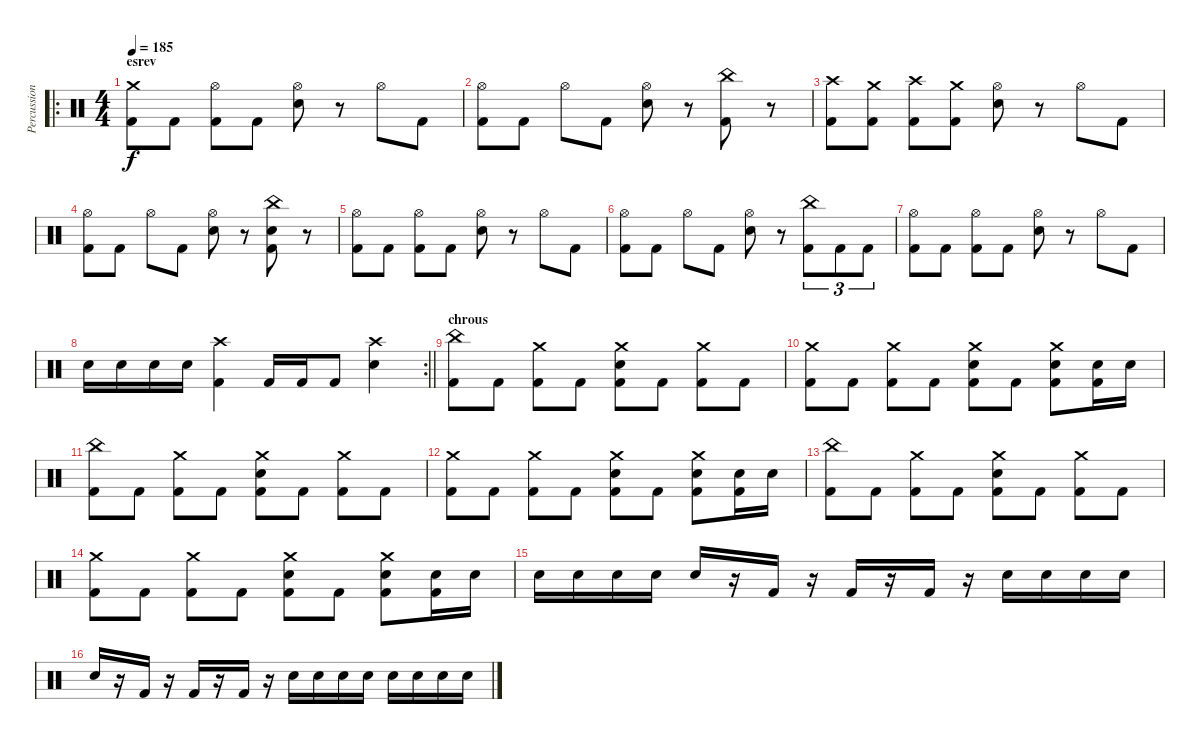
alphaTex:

\track ("Percussion" "Percussion") {instrument percussion}
\staff {score}
\articulation defaults
\ro
\ts (4 4)
\section ("" "esrev")
\tempo 185
\clef neutral
\ks c
("Crash medium (hit)" "Kick (hit) 2").8{dy f} "Kick (hit) 2".8 ("Hi-Hat (open)" "Kick (hit) 2").8 "Kick (hit) 2".8 ("Hi-Hat (open)" "Electric Snare (hit)").8 r.8 "Hi-Hat (open)".8 "Kick (hit) 2".8 |
("Hi-Hat (open)" "Kick (hit) 2").8 "Kick (hit) 2".8 "Hi-Hat (open)".8 "Kick (hit) 2".8 ("Hi-Hat (open)" "Electric Snare (hit)").8 r.8 ("China (hit)" "Kick (hit) 2").8 r.8 |
("Crash high (hit)" "Kick (hit) 2").8 ("Crash medium (hit)" "Kick (hit) 2").8 ("Crash high (hit)" "Kick (hit) 2").8 ("Crash medium (hit)" "Kick (hit) 2").8 ("Hi-Hat (open)" "Electric Snare (hit)").8 r.8 "Hi-Hat (open)".8 "Kick (hit) 2".8 |
("Hi-Hat (open)" "Kick (hit) 2").8 "Kick (hit) 2".8 "Hi-Hat (open)".8 "Kick (hit) 2".8 ("Hi-Hat (open)" "Electric Snare (hit)").8 r.8 ("China (hit)" "Electric Snare (hit)" "Kick (hit) 2").8 r.8 |
("Hi-Hat (open)" "Kick (hit) 2").8 "Kick (hit) 2".8 ("Hi-Hat (open)" "Kick (hit) 2").8 "Kick (hit) 2".8 ("Hi-Hat (open)" "Electric Snare (hit)").8 r.8 "Hi-Hat (open)".8 "Kick (hit) 2".8 |
("Hi-Hat (open)" "Kick (hit) 2").8 "Kick (hit) 2".8 "Hi-Hat (open)".8 "Kick (hit) 2".8 ("Hi-Hat (open)" "Electric Snare (hit)").8 r.8 ("China (hit)" "Kick (hit) 2").8{tu (3 2)} "Kick (hit) 2".8{tu (3 2)} "Kick (hit) 2".8{tu (3 2)} |
("Hi-Hat (open)" "Kick (hit) 2").8 "Kick (hit) 2".8 ("Hi-Hat (open)" "Kick (hit) 2").8 "Kick (hit) 2".8 ("Hi-Hat (open)" "Electric Snare (hit)").8 r.8 "Hi-Hat (open)".8 "Kick (hit) 2".8 |
\rc 2
\barLineRight lightlight "Electric Snare (hit)".16 "Electric Snare (hit)".16 "Electric Snare (hit)".16 "Electric Snare (hit)".16
("Crash high (hit)" "Kick (hit) 2").4 "Kick (hit) 2".16 "Kick (hit) 2".16 "Kick (hit) 2".8 ("Crash high (hit)" "Electric Snare (hit)").4 |
\section ("" "chrous")
("China (hit)" "Kick (hit) 2").8 "Kick (hit) 2".8 ("Crash medium (hit)" "Kick (hit) 2").8 "Kick (hit) 2".8 ("Crash medium (hit)" "Electric Snare (hit)" "Kick (hit) 2").8 "Kick (hit) 2".8 ("Crash medium (hit)" "Kick (hit) 2").8 "Kick (hit) 2".8 |
("Crash medium (hit)" "Kick (hit) 2").8 "Kick (hit) 2".8 ("Crash medium (hit)" "Kick (hit) 2").8 "Kick (hit) 2".8 ("Crash medium (hit)" "Electric Snare (hit)" "Kick (hit) 2").8 "Kick (hit) 2".8 ("Crash medium (hit)" "Electric Snare (hit)" "Kick (hit) 2").8 ("Electric Snare (hit)" "Kick (hit) 2").16 "Electric Snare (hit)".16 |
("China (hit)" "Kick (hit) 2").8 "Kick (hit) 2".8 ("Crash medium (hit)" "Kick (hit) 2").8 "Kick (hit) 2".8 ("Crash medium (hit)" "Electric Snare (hit)" "Kick (hit) 2").8 "Kick (hit) 2".8 ("Crash medium (hit)" "Kick (hit) 2").8 "Kick (hit) 2".8 |
("Crash medium (hit)" "Kick (hit) 2").8 "Kick (hit) 2".8 ("Crash medium (hit)" "Kick (hit) 2").8 "Kick (hit) 2".8 ("Crash medium (hit)" "Electric Snare (hit)" "Kick (hit) 2").8 "Kick (hit) 2".8 ("Crash medium (hit)" "Electric Snare (hit)" "Kick (hit) 2").8 ("Electric Snare (hit)" "Kick (hit) 2").16 "Electric Snare (hit)".16 |
("China (hit)" "Kick (hit) 2").8 "Kick (hit) 2".8 ("Crash medium (hit)" "Kick (hit) 2").8 "Kick (hit) 2".8 ("Crash medium (hit)" "Electric Snare (hit)" "Kick (hit) 2").8 "Kick (hit) 2".8 ("Crash medium (hit)" "Kick (hit) 2").8 "Kick (hit) 2".8 |
("Crash medium (hit)" "Kick (hit) 2").8 "Kick (hit) 2".8 ("Crash medium (hit)" "Kick (hit) 2").8 "Kick (hit) 2".8 ("Crash medium (hit)" "Electric Snare (hit)" "Kick (hit) 2").8 "Kick (hit) 2".8 ("Crash medium (hit)" "Electric Snare (hit)" "Kick (hit) 2").8 ("Electric Snare (hit)" "Kick (hit) 2").16 "Electric Snare (hit)".16 |
"Electric Snare (hit)".16 "Electric Snare (hit)".16 "Electric Snare (hit)".16 "Electric Snare (hit)".16 "Electric Snare (hit)".16 r.16 "Kick (hit) 2".16 r.16 "Kick (hit) 2".16 r.16 "Kick (hit) 2".16 r.16 "Electric Snare (hit)".16 "Electric Snare (hit)".16 "Electric Snare (hit)".16 "Electric Snare (hit)".16 |
"Electric Snare (hit)".16 r.16 "Kick (hit) 2".16 r.16 "Kick (hit) 2".16 r.16 "Kick (hit) 2".16 r.16 "Electric Snare (hit)".16 "Electric Snare (hit)".16 "Electric Snare (hit)".16 "Electric Snare (hit)".16 "Electric Snare (hit)".16 "Electric Snare (hit)".16 "Electric Snare (hit)".16 "Electric Snare (hit)".16
